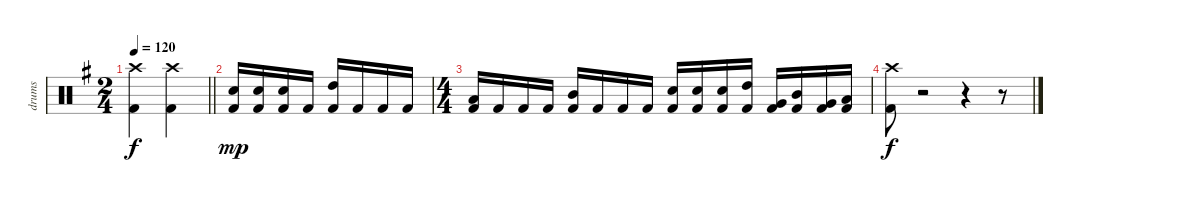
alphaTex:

\track ("drums" "drums") {instrument percussion}
\staff {score}
\articulation defaults
\ts (2 4)
\tempo 120
\clef neutral
\barLineRight lightlight
\ks g
("Crash high (hit)" "Kick (hit) 2").4{dy f} ("Crash high (hit)" "Kick (hit) 2").4 |
("Snare (hit) 2" "Kick (hit) 2").16{dy mp} ("Snare (hit) 2" "Kick (hit) 2").16 ("Snare (hit) 2" "Kick (hit) 2").16 "Kick (hit) 2".16 ("High Tom (hit)" "Kick (hit) 2").16 "Kick (hit) 2".16 "Kick (hit) 2".16 "Kick (hit) 2".16 |
\ts (4 4)
("Low Tom (hit)" "Kick (hit) 2").16 "Kick (hit) 2".16 "Kick (hit) 2".16 "Kick (hit) 2".16 ("Mid Tom (hit)" "Kick (hit) 2").16 "Kick (hit) 2".16 "Kick (hit) 2".16 "Kick (hit) 2".16 ("Snare (hit) 2" "Kick (hit) 2").16 ("Snare (hit) 2" "Kick (hit) 2").16 ("Snare (hit) 2" "Kick (hit) 2").16 ("High Tom (hit)" "Kick (hit) 2").16 ("Very Low Tom (hit)" "Kick (hit) 2").16 ("Mid Tom (hit)" "Kick (hit) 2").16 ("Very Low Tom (hit)" "Kick (hit) 2").16 ("Low Tom (hit)" "Kick (hit) 2").16 |
("Crash high (hit)" "Kick (hit) 2").8{dy f} r.2 r.4 r.8
